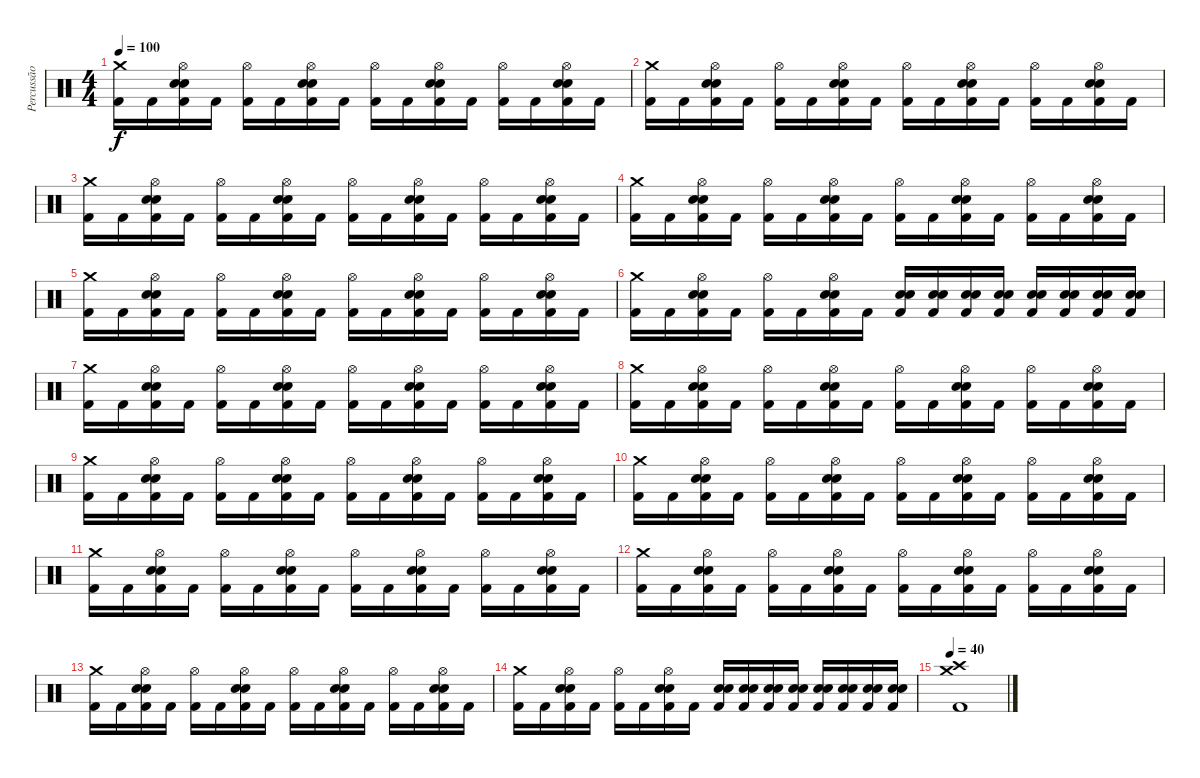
\track ("Percussão" "Percussão") {instrument percussion}
\staff {score}
\articulation defaults
\ts (4 4)
\tempo 100
\clef neutral
\ks c
("Crash medium (hit)" "Kick (hit) 2").16{dy f} "Kick (hit) 2".16 ("Hi-Hat (open)" "Electric Snare (hit)" "Snare (hit) 2" "Kick (hit) 2").16 "Kick (hit) 2".16 ("Hi-Hat (open)" "Kick (hit) 2").16 "Kick (hit) 2".16 ("Hi-Hat (open)" "Electric Snare (hit)" "Snare (hit) 2" "Kick (hit) 2").16 "Kick (hit) 2".16 ("Hi-Hat (open)" "Kick (hit) 2").16 "Kick (hit) 2".16 ("Hi-Hat (open)" "Electric Snare (hit)" "Snare (hit) 2" "Kick (hit) 2").16 "Kick (hit) 2".16 ("Hi-Hat (open)" "Kick (hit) 2").16 "Kick (hit) 2".16 ("Hi-Hat (open)" "Electric Snare (hit)" "Snare (hit) 2" "Kick (hit) 2").16 "Kick (hit) 2".16 |
("Crash medium (hit)" "Kick (hit) 2").16 "Kick (hit) 2".16 ("Hi-Hat (open)" "Electric Snare (hit)" "Snare (hit) 2" "Kick (hit) 2").16 "Kick (hit) 2".16 ("Hi-Hat (open)" "Kick (hit) 2").16 "Kick (hit) 2".16 ("Hi-Hat (open)" "Electric Snare (hit)" "Snare (hit) 2" "Kick (hit) 2").16 "Kick (hit) 2".16 ("Hi-Hat (open)" "Kick (hit) 2").16 "Kick (hit) 2".16 ("Hi-Hat (open)" "Electric Snare (hit)" "Snare (hit) 2" "Kick (hit) 2").16 "Kick (hit) 2".16 ("Hi-Hat (open)" "Kick (hit) 2").16 "Kick (hit) 2".16 ("Hi-Hat (open)" "Electric Snare (hit)" "Snare (hit) 2" "Kick (hit) 2").16 "Kick (hit) 2".16 |
("Crash medium (hit)" "Kick (hit) 2").16 "Kick (hit) 2".16 ("Hi-Hat (open)" "Electric Snare (hit)" "Snare (hit) 2" "Kick (hit) 2").16 "Kick (hit) 2".16 ("Hi-Hat (open)" "Kick (hit) 2").16 "Kick (hit) 2".16 ("Hi-Hat (open)" "Electric Snare (hit)" "Snare (hit) 2" "Kick (hit) 2").16 "Kick (hit) 2".16 ("Hi-Hat (open)" "Kick (hit) 2").16 "Kick (hit) 2".16 ("Hi-Hat (open)" "Electric Snare (hit)" "Snare (hit) 2" "Kick (hit) 2").16 "Kick (hit) 2".16 ("Hi-Hat (open)" "Kick (hit) 2").16 "Kick (hit) 2".16 ("Hi-Hat (open)" "Electric Snare (hit)" "Snare (hit) 2" "Kick (hit) 2").16 "Kick (hit) 2".16 |
("Crash medium (hit)" "Kick (hit) 2").16 "Kick (hit) 2".16 ("Hi-Hat (open)" "Electric Snare (hit)" "Snare (hit) 2" "Kick (hit) 2").16 "Kick (hit) 2".16 ("Hi-Hat (open)" "Kick (hit) 2").16 "Kick (hit) 2".16 ("Hi-Hat (open)" "Electric Snare (hit)" "Snare (hit) 2" "Kick (hit) 2").16 "Kick (hit) 2".16 ("Hi-Hat (open)" "Kick (hit) 2").16 "Kick (hit) 2".16 ("Hi-Hat (open)" "Electric Snare (hit)" "Snare (hit) 2" "Kick (hit) 2").16 "Kick (hit) 2".16 ("Hi-Hat (open)" "Kick (hit) 2").16 "Kick (hit) 2".16 ("Hi-Hat (open)" "Electric Snare (hit)" "Snare (hit) 2" "Kick (hit) 2").16 "Kick (hit) 2".16 |
("Crash medium (hit)" "Kick (hit) 2").16 "Kick (hit) 2".16 ("Hi-Hat (open)" "Electric Snare (hit)" "Snare (hit) 2" "Kick (hit) 2").16 "Kick (hit) 2".16 ("Hi-Hat (open)" "Kick (hit) 2").16 "Kick (hit) 2".16 ("Hi-Hat (open)" "Electric Snare (hit)" "Snare (hit) 2" "Kick (hit) 2").16 "Kick (hit) 2".16 ("Hi-Hat (open)" "Kick (hit) 2").16 "Kick (hit) 2".16 ("Hi-Hat (open)" "Electric Snare (hit)" "Snare (hit) 2" "Kick (hit) 2").16 "Kick (hit) 2".16 ("Hi-Hat (open)" "Kick (hit) 2").16 "Kick (hit) 2".16 ("Hi-Hat (open)" "Electric Snare (hit)" "Snare (hit) 2" "Kick (hit) 2").16 "Kick (hit) 2".16 |
("Crash medium (hit)" "Kick (hit) 2").16 "Kick (hit) 2".16 ("Hi-Hat (open)" "Electric Snare (hit)" "Snare (hit) 2" "Kick (hit) 2").16 "Kick (hit) 2".16 ("Hi-Hat (open)" "Kick (hit) 2").16 "Kick (hit) 2".16 ("Hi-Hat (open)" "Electric Snare (hit)" "Snare (hit) 2" "Kick (hit) 2").16 "Kick (hit) 2".16 ("Electric Snare (hit)" "Snare (hit) 2" "Kick (hit) 2").16 ("Electric Snare (hit)" "Snare (hit) 2" "Kick (hit) 2").16 ("Electric Snare (hit)" "Snare (hit)" "Kick (hit) 2").16 ("Electric Snare (hit)" "Snare (hit)" "Kick (hit) 2").16 ("Electric Snare (hit)" "Snare (hit) 2" "Kick (hit) 2").16 ("Electric Snare (hit)" "Snare (hit) 2" "Kick (hit) 2").16 ("Electric Snare (hit)" "Snare (hit) 2" "Kick (hit) 2").16 ("Electric Snare (hit)" "Snare (hit) 2" "Kick (hit) 2").16 |
("Crash medium (hit)" "Kick (hit) 2").16 "Kick (hit) 2".16 ("Hi-Hat (open)" "Electric Snare (hit)" "Snare (hit) 2" "Kick (hit) 2").16 "Kick (hit) 2".16 ("Hi-Hat (open)" "Kick (hit) 2").16 "Kick (hit) 2".16 ("Hi-Hat (open)" "Electric Snare (hit)" "Snare (hit) 2" "Kick (hit) 2").16 "Kick (hit) 2".16 ("Hi-Hat (open)" "Kick (hit) 2").16 "Kick (hit) 2".16 ("Hi-Hat (open)" "Electric Snare (hit)" "Snare (hit) 2" "Kick (hit) 2").16 "Kick (hit) 2".16 ("Hi-Hat (open)" "Kick (hit) 2").16 "Kick (hit) 2".16 ("Hi-Hat (open)" "Electric Snare (hit)" "Snare (hit) 2" "Kick (hit) 2").16 "Kick (hit) 2".16 |
("Crash medium (hit)" "Kick (hit) 2").16 "Kick (hit) 2".16 ("Hi-Hat (open)" "Electric Snare (hit)" "Snare (hit) 2" "Kick (hit) 2").16 "Kick (hit) 2".16 ("Hi-Hat (open)" "Kick (hit) 2").16 "Kick (hit) 2".16 ("Hi-Hat (open)" "Electric Snare (hit)" "Snare (hit) 2" "Kick (hit) 2").16 "Kick (hit) 2".16 ("Hi-Hat (open)" "Kick (hit) 2").16 "Kick (hit) 2".16 ("Hi-Hat (open)" "Electric Snare (hit)" "Snare (hit) 2" "Kick (hit) 2").16 "Kick (hit) 2".16 ("Hi-Hat (open)" "Kick (hit) 2").16 "Kick (hit) 2".16 ("Hi-Hat (open)" "Electric Snare (hit)" "Snare (hit) 2" "Kick (hit) 2").16 "Kick (hit) 2".16 |
("Crash medium (hit)" "Kick (hit) 2").16 "Kick (hit) 2".16 ("Hi-Hat (open)" "Electric Snare (hit)" "Snare (hit) 2" "Kick (hit) 2").16 "Kick (hit) 2".16 ("Hi-Hat (open)" "Kick (hit) 2").16 "Kick (hit) 2".16 ("Hi-Hat (open)" "Electric Snare (hit)" "Snare (hit) 2" "Kick (hit) 2").16 "Kick (hit) 2".16 ("Hi-Hat (open)" "Kick (hit) 2").16 "Kick (hit) 2".16 ("Hi-Hat (open)" "Electric Snare (hit)" "Snare (hit) 2" "Kick (hit) 2").16 "Kick (hit) 2".16 ("Hi-Hat (open)" "Kick (hit) 2").16 "Kick (hit) 2".16 ("Hi-Hat (open)" "Electric Snare (hit)" "Snare (hit) 2" "Kick (hit) 2").16 "Kick (hit) 2".16 |
("Crash medium (hit)" "Kick (hit) 2").16 "Kick (hit) 2".16 ("Hi-Hat (open)" "Electric Snare (hit)" "Snare (hit) 2" "Kick (hit) 2").16 "Kick (hit) 2".16 ("Hi-Hat (open)" "Kick (hit) 2").16 "Kick (hit) 2".16 ("Hi-Hat (open)" "Electric Snare (hit)" "Snare (hit) 2" "Kick (hit) 2").16 "Kick (hit) 2".16 ("Hi-Hat (open)" "Kick (hit) 2").16 "Kick (hit) 2".16 ("Hi-Hat (open)" "Electric Snare (hit)" "Snare (hit) 2" "Kick (hit) 2").16 "Kick (hit) 2".16 ("Hi-Hat (open)" "Kick (hit) 2").16 "Kick (hit) 2".16 ("Hi-Hat (open)" "Electric Snare (hit)" "Snare (hit) 2" "Kick (hit) 2").16 "Kick (hit) 2".16 |
("Crash medium (hit)" "Kick (hit) 2").16 "Kick (hit) 2".16 ("Hi-Hat (open)" "Electric Snare (hit)" "Snare (hit) 2" "Kick (hit) 2").16 "Kick (hit) 2".16 ("Hi-Hat (open)" "Kick (hit) 2").16 "Kick (hit) 2".16 ("Hi-Hat (open)" "Electric Snare (hit)" "Snare (hit) 2" "Kick (hit) 2").16 "Kick (hit) 2".16 ("Hi-Hat (open)" "Kick (hit) 2").16 "Kick (hit) 2".16 ("Hi-Hat (open)" "Electric Snare (hit)" "Snare (hit) 2" "Kick (hit) 2").16 "Kick (hit) 2".16 ("Hi-Hat (open)" "Kick (hit) 2").16 "Kick (hit) 2".16 ("Hi-Hat (open)" "Electric Snare (hit)" "Snare (hit) 2" "Kick (hit) 2").16 "Kick (hit) 2".16 |
("Crash medium (hit)" "Kick (hit) 2").16 "Kick (hit) 2".16 ("Hi-Hat (open)" "Electric Snare (hit)" "Snare (hit) 2" "Kick (hit) 2").16 "Kick (hit) 2".16 ("Hi-Hat (open)" "Kick (hit) 2").16 "Kick (hit) 2".16 ("Hi-Hat (open)" "Electric Snare (hit)" "Snare (hit) 2" "Kick (hit) 2").16 "Kick (hit) 2".16 ("Hi-Hat (open)" "Kick (hit) 2").16 "Kick (hit) 2".16 ("Hi-Hat (open)" "Electric Snare (hit)" "Snare (hit) 2" "Kick (hit) 2").16 "Kick (hit) 2".16 ("Hi-Hat (open)" "Kick (hit) 2").16 "Kick (hit) 2".16 ("Hi-Hat (open)" "Electric Snare (hit)" "Snare (hit) 2" "Kick (hit) 2").16 "Kick (hit) 2".16 |
("Crash medium (hit)" "Kick (hit) 2").16 "Kick (hit) 2".16 ("Hi-Hat (open)" "Electric Snare (hit)" "Snare (hit) 2" "Kick (hit) 2").16 "Kick (hit) 2".16 ("Hi-Hat (open)" "Kick (hit) 2").16 "Kick (hit) 2".16 ("Hi-Hat (open)" "Electric Snare (hit)" "Snare (hit) 2" "Kick (hit) 2").16 "Kick (hit) 2".16 ("Hi-Hat (open)" "Kick (hit) 2").16 "Kick (hit) 2".16 ("Hi-Hat (open)" "Electric Snare (hit)" "Snare (hit) 2" "Kick (hit) 2").16 "Kick (hit) 2".16 ("Hi-Hat (open)" "Kick (hit) 2").16 "Kick (hit) 2".16 ("Hi-Hat (open)" "Electric Snare (hit)" "Snare (hit) 2" "Kick (hit) 2").16 "Kick (hit) 2".16 |
("Crash medium (hit)" "Kick (hit) 2").16 "Kick (hit) 2".16 ("Hi-Hat (open)" "Electric Snare (hit)" "Snare (hit) 2" "Kick (hit) 2").16 "Kick (hit) 2".16 ("Hi-Hat (open)" "Kick (hit) 2").16 "Kick (hit) 2".16 ("Hi-Hat (open)" "Electric Snare (hit)" "Snare (hit) 2" "Kick (hit) 2").16 "Kick (hit) 2".16 ("Electric Snare (hit)" "Snare (hit) 2" "Kick (hit) 2").16 ("Electric Snare (hit)" "Snare (hit) 2" "Kick (hit) 2").16 ("Electric Snare (hit)" "Snare (hit)" "Kick (hit) 2").16 ("Electric Snare (hit)" "Snare (hit)" "Kick (hit) 2").16 ("Electric Snare (hit)" "Snare (hit) 2" "Kick (hit) 2").16 ("Electric Snare (hit)" "Snare (hit) 2" "Kick (hit) 2").16 ("Electric Snare (hit)" "Snare (hit) 2" "Kick (hit) 2").16 ("Electric Snare (hit)" "Snare (hit) 2" "Kick (hit) 2").16 |
\tempo 40
("Crash medium (hit)" "Crash high (hit)" "Kick (hit) 2").1
